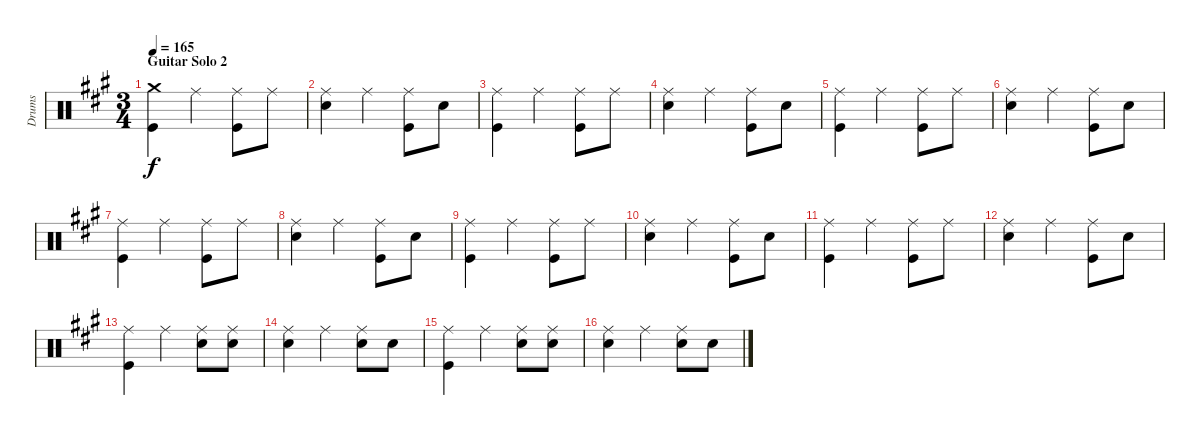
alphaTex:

\track ("Drums" "Drums") {instrument percussion}
\staff {score}
\articulation defaults
\ts (3 4)
\section ("" "Guitar Solo 2")
\tempo 165
\clef neutral
\ks a
("Crash medium (hit)" "Kick (hit)").4{dy f} "Ride (middle)".4 ("Ride (middle)" "Kick (hit)").8 "Ride (middle)".8 |
("Ride (middle)" "Snare (hit) 2").4 "Ride (middle)".4 ("Ride (middle)" "Kick (hit)").8 "Snare (hit) 2".8 |
("Ride (middle)" "Kick (hit)").4 "Ride (middle)".4 ("Ride (middle)" "Kick (hit)").8 "Ride (middle)".8 |
("Ride (middle)" "Snare (hit) 2").4 "Ride (middle)".4 ("Ride (middle)" "Kick (hit)").8 "Snare (hit) 2".8 |
("Ride (middle)" "Kick (hit)").4 "Ride (middle)".4 ("Ride (middle)" "Kick (hit)").8 "Ride (middle)".8 |
("Ride (middle)" "Snare (hit) 2").4 "Ride (middle)".4 ("Ride (middle)" "Kick (hit)").8 "Snare (hit) 2".8 |
("Ride (middle)" "Kick (hit)").4 "Ride (middle)".4 ("Ride (middle)" "Kick (hit)").8 "Ride (middle)".8 |
("Ride (middle)" "Snare (hit) 2").4 "Ride (middle)".4 ("Ride (middle)" "Kick (hit)").8 "Snare (hit) 2".8 |
("Ride (middle)" "Kick (hit)").4 "Ride (middle)".4 ("Ride (middle)" "Kick (hit)").8 "Ride (middle)".8 |
("Ride (middle)" "Snare (hit) 2").4 "Ride (middle)".4 ("Ride (middle)" "Kick (hit)").8 "Snare (hit) 2".8 |
("Ride (middle)" "Kick (hit)").4 "Ride (middle)".4 ("Ride (middle)" "Kick (hit)").8 "Ride (middle)".8 |
("Ride (middle)" "Snare (hit) 2").4 "Ride (middle)".4 ("Ride (middle)" "Kick (hit)").8 "Snare (hit) 2".8 |
("Ride (middle)" "Kick (hit)").4 "Ride (middle)".4 ("Ride (middle)" "Snare (hit) 2").8 ("Ride (middle)" "Snare (hit) 2").8 |
("Ride (middle)" "Snare (hit) 2").4 "Ride (middle)".4 ("Ride (middle)" "Snare (hit) 2").8 "Snare (hit) 2".8 |
("Ride (middle)" "Kick (hit)").4 "Ride (middle)".4 ("Ride (middle)" "Snare (hit) 2").8 ("Ride (middle)" "Snare (hit) 2").8 |
("Ride (middle)" "Snare (hit) 2").4 "Ride (middle)".4 ("Ride (middle)" "Snare (hit) 2").8 "Snare (hit) 2".8
